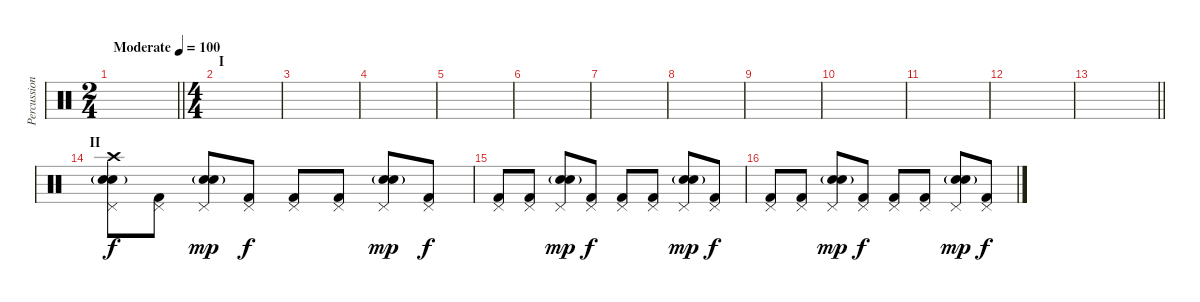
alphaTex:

\track ("Percussion" "Percussion") {instrument percussion}
\staff {score}
\articulation defaults
\ts (2 4)
\tempo (100 "Moderate")
\clef neutral
\barLineRight lightlight
\ks c
|
\ts (4 4)
\section ("" "I")
|
|
|
|
|
|
|
|
|
|
|
\barLineRight lightlight
|
\section ("" "II")
("Crash high (hit)" "Electric Snare (hit)" "Snare (hit) 2"{g} "Pedal Hi-Hat (hit)").8 ("Kick (hit) 2" "Pedal Hi-Hat (hit)").8{dy f} ("Electric Snare (hit)" "Snare (hit) 2"{g} "Pedal Hi-Hat (hit)").8{dy mp} ("Kick (hit) 2" "Pedal Hi-Hat (hit)").8{dy f} ("Kick (hit) 2" "Pedal Hi-Hat (hit)").8 ("Kick (hit) 2" "Pedal Hi-Hat (hit)").8 ("Electric Snare (hit)" "Snare (hit) 2"{g} "Pedal Hi-Hat (hit)").8{dy mp} ("Kick (hit) 2" "Pedal Hi-Hat (hit)").8{dy f} |
("Kick (hit) 2" "Pedal Hi-Hat (hit)").8 ("Kick (hit) 2" "Pedal Hi-Hat (hit)").8 ("Electric Snare (hit)" "Snare (hit) 2"{g} "Pedal Hi-Hat (hit)").8{dy mp} ("Kick (hit) 2" "Pedal Hi-Hat (hit)").8{dy f} ("Kick (hit) 2" "Pedal Hi-Hat (hit)").8 ("Kick (hit) 2" "Pedal Hi-Hat (hit)").8 ("Electric Snare (hit)" "Snare (hit) 2"{g} "Pedal Hi-Hat (hit)").8{dy mp} ("Kick (hit) 2" "Pedal Hi-Hat (hit)").8{dy f} |
("Kick (hit) 2" "Pedal Hi-Hat (hit)").8 ("Kick (hit) 2" "Pedal Hi-Hat (hit)").8 ("Electric Snare (hit)" "Snare (hit) 2"{g} "Pedal Hi-Hat (hit)").8{dy mp} ("Kick (hit) 2" "Pedal Hi-Hat (hit)").8{dy f} ("Kick (hit) 2" "Pedal Hi-Hat (hit)").8 ("Kick (hit) 2" "Pedal Hi-Hat (hit)").8 ("Electric Snare (hit)" "Snare (hit) 2"{g} "Pedal Hi-Hat (hit)").8{dy mp} ("Kick (hit) 2" "Pedal Hi-Hat (hit)").8{dy f}
